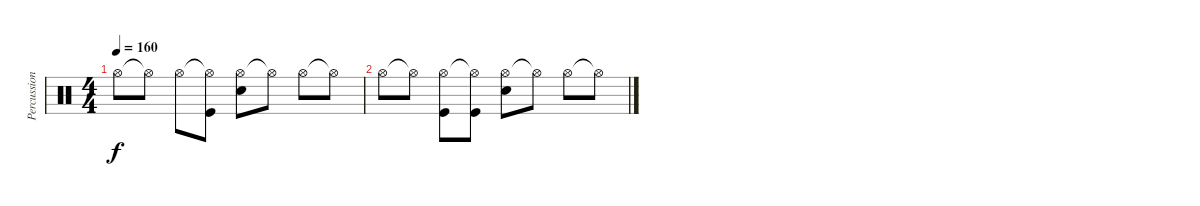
\track ("Percussion" "Percussion") {instrument percussion}
\staff {score}
\articulation defaults
\ts (4 4)
\tempo 160
\clef neutral
\ks c "Hi-Hat (open)".8{dy f} "Hi-Hat (open)"{t}.8 "Hi-Hat (open)".8
("Hi-Hat (open)"{t} "Kick (hit)").8 ("Hi-Hat (open)" "Snare (hit) 2").8 "Hi-Hat (open)"{t}.8 "Hi-Hat (open)".8 "Hi-Hat (open)"{t}.8 |
"Hi-Hat (open)".8 "Hi-Hat (open)"{t}.8 ("Hi-Hat (open)" "Kick (hit)").8 ("Hi-Hat (open)"{t} "Kick (hit)").8 ("Hi-Hat (open)" "Snare (hit) 2").8 "Hi-Hat (open)"{t}.8 "Hi-Hat (open)".8 "Hi-Hat (open)"{t}.8
